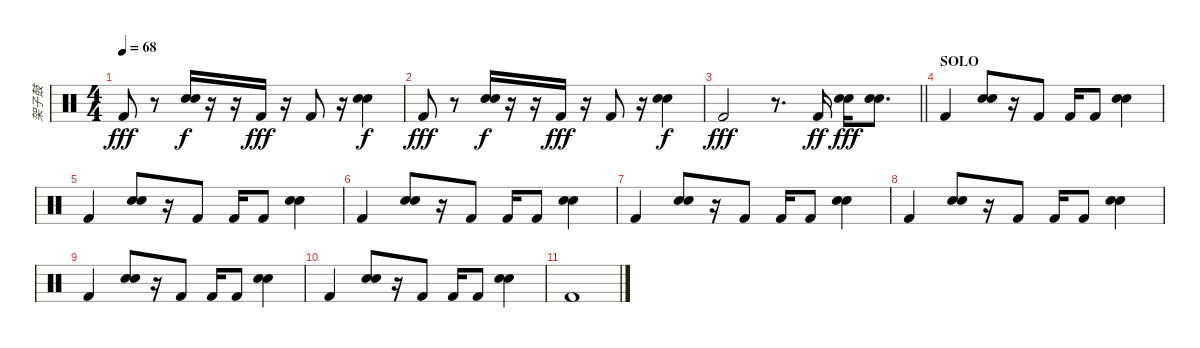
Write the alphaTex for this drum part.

\track ("架子鼓" "架子鼓") {instrument percussion}
\staff {score}
\articulation defaults
\ts (4 4)
\tempo 68
\clef neutral
\ks c "Kick (hit) 2".8{dy fff}
r.8 ("Snare (hit) 2" "Hand Clap (hit)").16{dy f} r.16 r.16 "Kick (hit) 2".16{dy fff} r.16 "Kick (hit) 2".8 r.16 ("Snare (hit) 2" "Hand Clap (hit)").4{dy f} |
"Kick (hit) 2".8{dy fff} r.8 ("Snare (hit) 2" "Hand Clap (hit)").16{dy f} r.16 r.16 "Kick (hit) 2".16{dy fff} r.16 "Kick (hit) 2".8 r.16 ("Snare (hit) 2" "Hand Clap (hit)").4{dy f} |
\barLineRight lightlight "Kick (hit) 2".2{dy fff}
r.8{d} "Kick (hit) 2".16{dy ff} ("Snare (hit) 2" "Hand Clap (hit)").16{dy fff} ("Snare (hit) 2" "Hand Clap (hit)").8{d} |
\section ("" "SOLO")
"Kick (hit) 2".4 ("Snare (hit) 2" "Hand Clap (hit)").8 r.16 "Kick (hit) 2".8 "Kick (hit) 2".16 "Kick (hit) 2".8 ("Snare (hit) 2" "Hand Clap (hit)").4 |
"Kick (hit) 2".4 ("Snare (hit) 2" "Hand Clap (hit)").8 r.16 "Kick (hit) 2".8 "Kick (hit) 2".16 "Kick (hit) 2".8 ("Snare (hit) 2" "Hand Clap (hit)").4 |
"Kick (hit) 2".4 ("Snare (hit) 2" "Hand Clap (hit)").8 r.16 "Kick (hit) 2".8 "Kick (hit) 2".16 "Kick (hit) 2".8 ("Snare (hit) 2" "Hand Clap (hit)").4 |
"Kick (hit) 2".4 ("Snare (hit) 2" "Hand Clap (hit)").8 r.16 "Kick (hit) 2".8 "Kick (hit) 2".16 "Kick (hit) 2".8 ("Snare (hit) 2" "Hand Clap (hit)").4 |
"Kick (hit) 2".4 ("Snare (hit) 2" "Hand Clap (hit)").8 r.16 "Kick (hit) 2".8 "Kick (hit) 2".16 "Kick (hit) 2".8 ("Snare (hit) 2" "Hand Clap (hit)").4 |
"Kick (hit) 2".4 ("Snare (hit) 2" "Hand Clap (hit)").8 r.16 "Kick (hit) 2".8 "Kick (hit) 2".16 "Kick (hit) 2".8 ("Snare (hit) 2" "Hand Clap (hit)").4 |
"Kick (hit) 2".4 ("Snare (hit) 2" "Hand Clap (hit)").8 r.16 "Kick (hit) 2".8 "Kick (hit) 2".16 "Kick (hit) 2".8 ("Snare (hit) 2" "Hand Clap (hit)").4 |
"Kick (hit) 2".1
